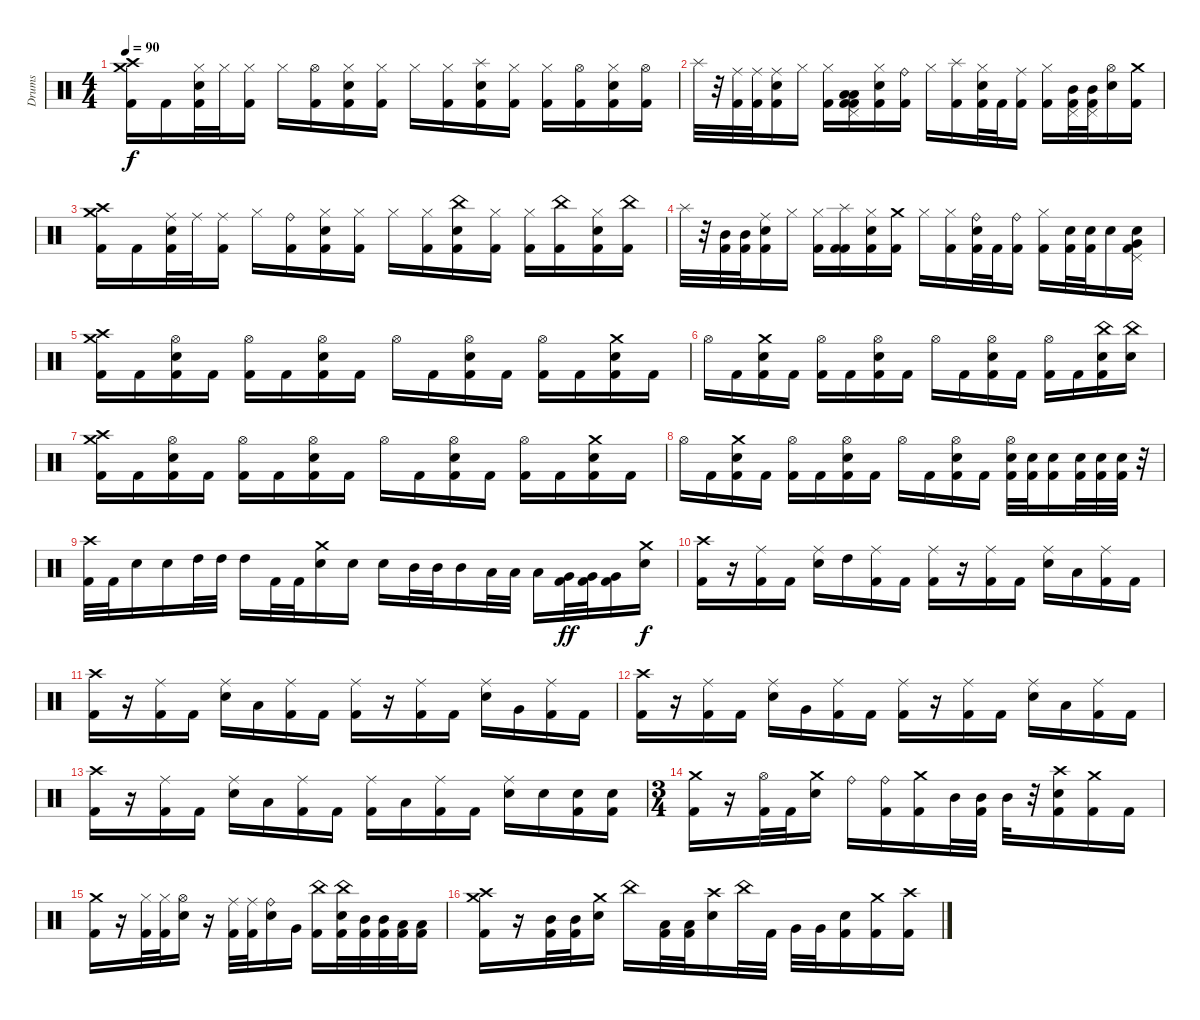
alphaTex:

\track ("Drums" "Drums") {instrument percussion}
\staff {score}
\articulation defaults
\ts (4 4)
\tempo 90
\clef neutral
\ks c
("Crash high (hit)" "Crash medium (hit)" "Kick (hit) 2").16{dy f} "Kick (hit) 2".16 ("Hi-Hat (closed)" "Snare (hit) 2" "Kick (hit) 2").32 "Hi-Hat (closed)".32 ("Hi-Hat (closed)" "Kick (hit) 2").16 "Hi-Hat (closed)".16 ("Hi-Hat (open)" "Kick (hit) 2").16 ("Hi-Hat (closed)" "Snare (hit) 2" "Kick (hit) 2").16 ("Hi-Hat (closed)" "Kick (hit) 2").16 "Hi-Hat (closed)".16 ("Hi-Hat (closed)" "Kick (hit) 2").16 ("Splash (hit)" "Snare (hit) 2" "Kick (hit) 2").16 ("Hi-Hat (closed)" "Kick (hit) 2").16 ("Hi-Hat (closed)" "Kick (hit) 2").16 ("Hi-Hat (open)" "Kick (hit) 2").16 ("Hi-Hat (closed)" "Snare (hit) 2" "Kick (hit) 2").16 ("Hi-Hat (open)" "Kick (hit) 2").16 |
"Splash (hit)".32 r.32 ("Ride (middle)" "Kick (hit) 2").32 ("Ride (middle)" "Kick (hit) 2").32 ("Ride (middle)" "Snare (hit) 2" "Kick (hit) 2").16 "Hi-Hat (closed)".16 ("Hi-Hat (closed)" "Kick (hit) 2").16 ("Pedal Hi-Hat (hit)" "Low Tom (hit)" "Low Tom (hit)" "Kick (hit) 2" "Kick (hit) 2").16 ("Hi-Hat (closed)" "Snare (hit) 2" "Kick (hit) 2").16 ("Ride (bell)" "Kick (hit) 2").16 "Hi-Hat (closed)".16 ("Splash (hit)" "Kick (hit) 2").16 ("Hi-Hat (closed)" "Snare (hit) 2" "Kick (hit) 2").32 "Kick (hit) 2".32 ("Ride (middle)" "Kick (hit) 2").16 ("Hi-Hat (closed)" "Kick (hit) 2").16 ("Pedal Hi-Hat (hit)" "Mid Tom (hit)" "Kick (hit) 2").32 ("Pedal Hi-Hat (hit)" "Mid Tom (hit)" "Kick (hit) 2").32 ("Hi-Hat (open)" "Snare (hit) 2").16 ("Crash medium (hit)" "Kick (hit) 2").16 |
("Crash high (hit)" "Crash medium (hit)" "Kick (hit) 2").16 "Kick (hit) 2".16 ("Ride (middle)" "Snare (hit) 2" "Kick (hit) 2").32 "Ride (middle)".32 ("Ride (middle)" "Kick (hit) 2").16 "Hi-Hat (closed)".16 ("Ride (bell)" "Kick (hit) 2").16 ("Hi-Hat (closed)" "Snare (hit) 2" "Kick (hit) 2").16 ("Hi-Hat (closed)" "Kick (hit) 2").16 "Hi-Hat (closed)".16 ("Hi-Hat (closed)" "Kick (hit) 2").16 ("China (hit)" "Snare (hit) 2" "Kick (hit) 2").16 ("Hi-Hat (closed)" "Kick (hit) 2").16 ("Hi-Hat (closed)" "Kick (hit) 2").16 ("China (hit)" "Kick (hit) 2").16 ("Hi-Hat (closed)" "Snare (hit) 2" "Kick (hit) 2").16 ("China (hit)" "Kick (hit) 2").16 |
"Splash (hit)".32 r.32 ("Mid Tom (hit)" "Kick (hit) 2").32 ("Mid Tom (hit)" "Kick (hit) 2").32 ("Ride (middle)" "Snare (hit) 2" "Kick (hit) 2").16 "Hi-Hat (closed)".16 ("Hi-Hat (closed)" "Kick (hit) 2").16 ("Splash (hit)" "Kick (hit) 2" "Kick (hit) 2").16 ("Hi-Hat (closed)" "Snare (hit) 2" "Kick (hit) 2").16 ("Crash medium (hit)" "Kick (hit) 2").16 "Hi-Hat (closed)".16 ("Hi-Hat (closed)" "Kick (hit) 2").16 ("Ride (bell)" "Snare (hit) 2" "Kick (hit) 2").32 "Kick (hit) 2".32 ("Ride (bell)" "Kick (hit) 2").16 ("Hi-Hat (closed)" "Kick (hit) 2").16 ("Snare (hit) 2" "Kick (hit) 2").32 ("Snare (hit) 2" "Kick (hit) 2").32 "Snare (hit) 2".16 ("Pedal Hi-Hat (hit)" "Very Low Tom (hit)" "Snare (hit) 2" "Kick (hit) 2").16 |
("Crash high (hit)" "Crash medium (hit)" "Kick (hit) 2").16 "Kick (hit) 2".16 ("Hi-Hat (open)" "Snare (hit) 2" "Kick (hit) 2").16 "Kick (hit) 2".16 ("Hi-Hat (open)" "Kick (hit) 2").16 "Kick (hit) 2".16 ("Hi-Hat (open)" "Snare (hit) 2" "Kick (hit) 2").16 "Kick (hit) 2".16 "Hi-Hat (open)".16 "Kick (hit) 2".16 ("Hi-Hat (open)" "Snare (hit) 2" "Kick (hit) 2").16 "Kick (hit) 2".16 ("Hi-Hat (open)" "Kick (hit) 2").16 "Kick (hit) 2".16 ("Crash medium (hit)" "Snare (hit) 2" "Kick (hit) 2").16 "Kick (hit) 2".16 |
"Hi-Hat (open)".16 "Kick (hit) 2".16 ("Crash medium (hit)" "Snare (hit) 2" "Kick (hit) 2").16 "Kick (hit) 2".16 ("Hi-Hat (open)" "Kick (hit) 2").16 "Kick (hit) 2".16 ("Hi-Hat (open)" "Snare (hit) 2" "Kick (hit) 2").16 "Kick (hit) 2".16 "Hi-Hat (open)".16 "Kick (hit) 2".16 ("Hi-Hat (open)" "Snare (hit) 2" "Kick (hit) 2").16 "Kick (hit) 2".16 ("Hi-Hat (open)" "Kick (hit) 2").16 "Kick (hit) 2".16 ("China (hit)" "Snare (hit) 2" "Kick (hit) 2").16 ("China (hit)" "Snare (hit) 2").16 |
("Crash high (hit)" "Crash medium (hit)" "Kick (hit) 2").16 "Kick (hit) 2".16 ("Hi-Hat (open)" "Snare (hit) 2" "Kick (hit) 2").16 "Kick (hit) 2".16 ("Hi-Hat (open)" "Kick (hit) 2").16 "Kick (hit) 2".16 ("Hi-Hat (open)" "Snare (hit) 2" "Kick (hit) 2").16 "Kick (hit) 2".16 "Hi-Hat (open)".16 "Kick (hit) 2".16 ("Hi-Hat (open)" "Snare (hit) 2" "Kick (hit) 2").16 "Kick (hit) 2".16 ("Hi-Hat (open)" "Kick (hit) 2").16 "Kick (hit) 2".16 ("Crash medium (hit)" "Snare (hit) 2" "Kick (hit) 2").16 "Kick (hit) 2".16 |
"Hi-Hat (open)".16 "Kick (hit) 2".16 ("Crash medium (hit)" "Snare (hit) 2" "Kick (hit) 2").16 "Kick (hit) 2".16 ("Hi-Hat (open)" "Kick (hit) 2").16 "Kick (hit) 2".16 ("Hi-Hat (open)" "Snare (hit) 2" "Kick (hit) 2").16 "Kick (hit) 2".16 "Hi-Hat (open)".16 "Kick (hit) 2".16 ("Hi-Hat (open)" "Snare (hit) 2" "Kick (hit) 2").16 "Kick (hit) 2".16 ("Hi-Hat (open)" "Snare (hit) 2" "Kick (hit) 2").32 ("Snare (hit) 2" "Kick (hit) 2").32 ("Snare (hit) 2" "Kick (hit) 2").16 ("Snare (hit) 2" "Kick (hit) 2").32 ("Snare (hit) 2" "Kick (hit) 2").32 ("Snare (hit) 2" "Kick (hit) 2").32 r.32 |
("Crash high (hit)" "Kick (hit) 2").32 "Kick (hit) 2".32 "Snare (hit) 2".16 "Snare (hit) 2".16 "High Tom (hit)".32 "High Tom (hit)".32 "High Tom (hit)".16 "Kick (hit) 2".32 "Kick (hit) 2".32 ("Crash medium (hit)" "Snare (hit) 2").16 "Snare (hit) 2".16 "Snare (hit) 2".16 "Mid Tom (hit)".32 "Mid Tom (hit)".32 "Mid Tom (hit)".16 "Low Tom (hit)".32 "Low Tom (hit)".32 "Low Tom (hit)".16 ("Very Low Tom (hit)" "Kick (hit) 2").32{dy ff} ("Very Low Tom (hit)" "Kick (hit) 2").32 ("Very Low Tom (hit)" "Kick (hit) 2").16 ("Crash medium (hit)" "Snare (hit) 2").16{dy f} |
("Crash high (hit)" "Kick (hit) 2").16 r.16 ("Ride (middle)" "Kick (hit) 2").16 "Kick (hit) 2".16 ("Ride (middle)" "Snare (hit) 2").16 "High Tom (hit)".16 ("Ride (middle)" "Kick (hit) 2").16 "Kick (hit) 2".16 ("Ride (middle)" "Kick (hit) 2").16 r.16 ("Ride (middle)" "Kick (hit) 2").16 "Kick (hit) 2".16 ("Ride (middle)" "Snare (hit) 2").16 "Low Tom (hit)".16 ("Ride (middle)" "Kick (hit) 2").16 "Kick (hit) 2".16 |
("Crash high (hit)" "Kick (hit) 2").16 r.16 ("Ride (middle)" "Kick (hit) 2").16 "Kick (hit) 2".16 ("Ride (middle)" "Snare (hit) 2").16 "Low Tom (hit)".16 ("Ride (middle)" "Kick (hit) 2").16 "Kick (hit) 2".16 ("Ride (middle)" "Kick (hit) 2").16 r.16 ("Ride (middle)" "Kick (hit) 2").16 "Kick (hit) 2".16 ("Ride (middle)" "Snare (hit) 2").16 "Very Low Tom (hit)".16 ("Ride (middle)" "Kick (hit) 2").16 "Kick (hit) 2".16 |
("Crash high (hit)" "Kick (hit) 2").16 r.16 ("Ride (middle)" "Kick (hit) 2").16 "Kick (hit) 2".16 ("Ride (middle)" "Snare (hit) 2").16 "Very Low Tom (hit)".16 ("Ride (middle)" "Kick (hit) 2").16 "Kick (hit) 2".16 ("Ride (middle)" "Kick (hit) 2").16 r.16 ("Ride (middle)" "Kick (hit) 2").16 "Kick (hit) 2".16 ("Ride (middle)" "Snare (hit) 2").16 "Low Floor Tom (hit)".16 ("Ride (middle)" "Kick (hit) 2").16 "Kick (hit) 2".16 |
("Crash high (hit)" "Kick (hit) 2").16 r.16 ("Ride (middle)" "Kick (hit) 2").16 "Kick (hit) 2".16 ("Ride (middle)" "Snare (hit) 2").16 "Low Floor Tom (hit)".16 ("Ride (middle)" "Kick (hit) 2").16 "Kick (hit) 2".16 ("Ride (middle)" "Kick (hit) 2").16 "Low Tom (hit)".16 ("Ride (middle)" "Kick (hit) 2").16 "Kick (hit) 2".16 ("Ride (middle)" "Snare (hit) 2").16 "Snare (hit) 2".16 ("Snare (hit) 2" "Kick (hit) 2").16 ("Snare (hit) 2" "Kick (hit) 2").16 |
\ts (3 4)
("Crash medium (hit)" "Kick (hit) 2").16 r.16 ("Hi-Hat (open)" "Kick (hit) 2").32 "Kick (hit) 2".32 ("Crash medium (hit)" "Snare (hit) 2").16 "Ride (bell)".16 ("Ride (bell)" "Kick (hit) 2").16 ("Crash medium (hit)" "Kick (hit) 2").16 "Mid Tom (hit)".32 ("Mid Tom (hit)" "Kick (hit) 2").32 "Mid Tom (hit)".32 r.32 ("Crash high (hit)" "Snare (hit) 2" "Kick (hit) 2").16 ("Crash medium (hit)" "Kick (hit) 2").16 "Kick (hit) 2".16 |
("Crash medium (hit)" "Kick (hit) 2").16 r.16 ("Hi-Hat (closed)" "Kick (hit) 2").32 ("Hi-Hat (closed)" "Kick (hit) 2").32 ("Hi-Hat (open)" "Snare (hit) 2").16 r.16 ("Ride (middle)" "Kick (hit) 2").32 ("Ride (middle)" "Kick (hit) 2").32 ("Ride (bell)" "Snare (hit) 2").16 "Very Low Tom (hit)".16 ("China (hit)" "Kick (hit) 2").16 ("China (hit)" "Snare (hit) 2" "Kick (hit) 2").32 ("Mid Tom (hit)" "Kick (hit) 2").32 ("Mid Tom (hit)" "Kick (hit) 2").32 ("Low Tom (hit)" "Kick (hit) 2").32 ("Low Tom (hit)" "Kick (hit) 2").16 |
("Crash medium (hit)" "Crash high (hit)" "Kick (hit) 2").16 r.16 ("Mid Tom (hit)" "Kick (hit) 2").32 ("Mid Tom (hit)" "Kick (hit) 2").32 ("Crash medium (hit)" "Snare (hit) 2").16 "China (hit)".16 ("Low Tom (hit)" "Kick (hit) 2").32 ("Low Tom (hit)" "Kick (hit) 2").32 ("Crash high (hit)" "Snare (hit) 2").16 "China (hit)".32 "Kick (hit) 2".32 "Very Low Tom (hit)".32 "Very Low Tom (hit)".32 ("Snare (hit) 2" "Kick (hit) 2").16 ("Crash medium (hit)" "Kick (hit) 2").16 ("Crash high (hit)" "Kick (hit) 2").16
